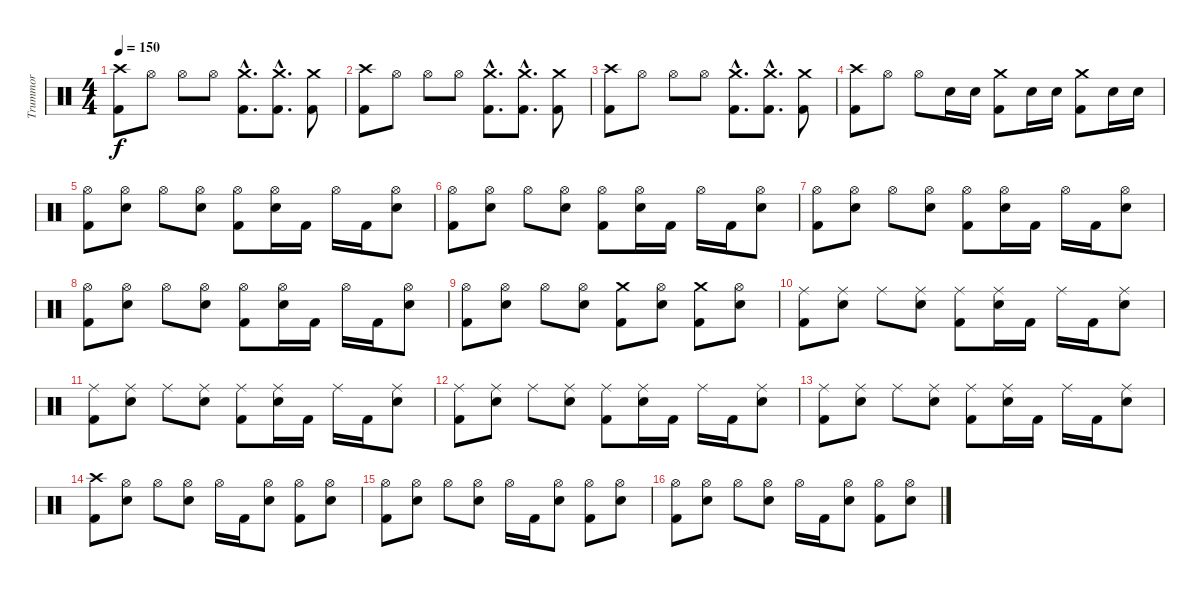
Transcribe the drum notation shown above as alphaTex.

\track ("Trummor" "Trummor") {instrument percussion}
\staff {score}
\articulation defaults
\ts (4 4)
\tempo 150
\clef neutral
\ks c
("Crash high (hit)" "Kick (hit) 2").8{dy f} "Hi-Hat (open)".8 "Hi-Hat (open)".8 "Hi-Hat (open)".8 ("Crash medium (hit)"{hac} "Kick (hit) 2"{hac}).8{d} ("Crash medium (hit)"{hac} "Kick (hit) 2"{hac}).8{d} ("Crash medium (hit)" "Kick (hit) 2").8 |
("Crash high (hit)" "Kick (hit) 2").8 "Hi-Hat (open)".8 "Hi-Hat (open)".8 "Hi-Hat (open)".8 ("Crash medium (hit)"{hac} "Kick (hit) 2"{hac}).8{d} ("Crash medium (hit)"{hac} "Kick (hit) 2"{hac}).8{d} ("Crash medium (hit)" "Kick (hit) 2").8 |
("Crash high (hit)" "Kick (hit) 2").8 "Hi-Hat (open)".8 "Hi-Hat (open)".8 "Hi-Hat (open)".8 ("Crash medium (hit)"{hac} "Kick (hit) 2"{hac}).8{d} ("Crash medium (hit)"{hac} "Kick (hit) 2"{hac}).8{d} ("Crash medium (hit)" "Kick (hit) 2").8 |
("Crash high (hit)" "Kick (hit) 2").8 "Hi-Hat (open)".8 "Hi-Hat (open)".8 "Snare (hit) 2".16 "Snare (hit) 2".16 ("Crash medium (hit)" "Kick (hit) 2").8 "Snare (hit) 2".16 "Snare (hit) 2".16 ("Crash medium (hit)" "Kick (hit) 2").8 "Snare (hit) 2".16 "Snare (hit) 2".16 |
("Hi-Hat (open)" "Kick (hit) 2").8 ("Hi-Hat (open)" "Snare (hit) 2").8 "Hi-Hat (open)".8 ("Hi-Hat (open)" "Snare (hit) 2").8 ("Hi-Hat (open)" "Kick (hit) 2").8 ("Hi-Hat (open)" "Snare (hit) 2").16 "Kick (hit) 2".16 "Hi-Hat (open)".16 "Kick (hit) 2".16 ("Hi-Hat (open)" "Snare (hit) 2").8 |
("Hi-Hat (open)" "Kick (hit) 2").8 ("Hi-Hat (open)" "Snare (hit) 2").8 "Hi-Hat (open)".8 ("Hi-Hat (open)" "Snare (hit) 2").8 ("Hi-Hat (open)" "Kick (hit) 2").8 ("Hi-Hat (open)" "Snare (hit) 2").16 "Kick (hit) 2".16 "Hi-Hat (open)".16 "Kick (hit) 2".16 ("Hi-Hat (open)" "Snare (hit) 2").8 |
("Hi-Hat (open)" "Kick (hit) 2").8 ("Hi-Hat (open)" "Snare (hit) 2").8 "Hi-Hat (open)".8 ("Hi-Hat (open)" "Snare (hit) 2").8 ("Hi-Hat (open)" "Kick (hit) 2").8 ("Hi-Hat (open)" "Snare (hit) 2").16 "Kick (hit) 2".16 "Hi-Hat (open)".16 "Kick (hit) 2".16 ("Hi-Hat (open)" "Snare (hit) 2").8 |
("Hi-Hat (open)" "Kick (hit) 2").8 ("Hi-Hat (open)" "Snare (hit) 2").8 "Hi-Hat (open)".8 ("Hi-Hat (open)" "Snare (hit) 2").8 ("Hi-Hat (open)" "Kick (hit) 2").8 ("Hi-Hat (open)" "Snare (hit) 2").16 "Kick (hit) 2".16 "Hi-Hat (open)".16 "Kick (hit) 2".16 ("Hi-Hat (open)" "Snare (hit) 2").8 |
("Hi-Hat (open)" "Kick (hit) 2").8 ("Hi-Hat (open)" "Snare (hit) 2").8 "Hi-Hat (open)".8 ("Hi-Hat (open)" "Snare (hit) 2").8 ("Crash medium (hit)" "Kick (hit) 2").8 ("Hi-Hat (open)" "Snare (hit) 2").8 ("Crash medium (hit)" "Kick (hit) 2").8 ("Hi-Hat (open)" "Snare (hit) 2").8 |
("Ride (middle)" "Kick (hit) 2").8 ("Ride (middle)" "Snare (hit) 2").8 "Ride (middle)".8 ("Ride (middle)" "Snare (hit) 2").8 ("Ride (middle)" "Kick (hit) 2").8 ("Ride (middle)" "Snare (hit) 2").16 "Kick (hit) 2".16 "Ride (middle)".16 "Kick (hit) 2".16 ("Ride (middle)" "Snare (hit) 2").8 |
("Ride (middle)" "Kick (hit) 2").8 ("Ride (middle)" "Snare (hit) 2").8 "Ride (middle)".8 ("Ride (middle)" "Snare (hit) 2").8 ("Ride (middle)" "Kick (hit) 2").8 ("Ride (middle)" "Snare (hit) 2").16 "Kick (hit) 2".16 "Ride (middle)".16 "Kick (hit) 2".16 ("Ride (middle)" "Snare (hit) 2").8 |
("Ride (middle)" "Kick (hit) 2").8 ("Ride (middle)" "Snare (hit) 2").8 "Ride (middle)".8 ("Ride (middle)" "Snare (hit) 2").8 ("Ride (middle)" "Kick (hit) 2").8 ("Ride (middle)" "Snare (hit) 2").16 "Kick (hit) 2".16 "Ride (middle)".16 "Kick (hit) 2".16 ("Ride (middle)" "Snare (hit) 2").8 |
("Ride (middle)" "Kick (hit) 2").8 ("Ride (middle)" "Snare (hit) 2").8 "Ride (middle)".8 ("Ride (middle)" "Snare (hit) 2").8 ("Ride (middle)" "Kick (hit) 2").8 ("Ride (middle)" "Snare (hit) 2").16 "Kick (hit) 2".16 "Ride (middle)".16 "Kick (hit) 2".16 ("Ride (middle)" "Snare (hit) 2").8 |
("Crash high (hit)" "Kick (hit) 2").8 ("Hi-Hat (open)" "Snare (hit) 2").8 "Hi-Hat (open)".8 ("Hi-Hat (open)" "Snare (hit) 2").8 "Hi-Hat (open)".16 "Kick (hit) 2".16 ("Hi-Hat (open)" "Snare (hit) 2").8 ("Hi-Hat (open)" "Kick (hit) 2").8 ("Hi-Hat (open)" "Snare (hit) 2").8 |
("Hi-Hat (open)" "Kick (hit) 2").8 ("Hi-Hat (open)" "Snare (hit) 2").8 "Hi-Hat (open)".8 ("Hi-Hat (open)" "Snare (hit) 2").8 "Hi-Hat (open)".16 "Kick (hit) 2".16 ("Hi-Hat (open)" "Snare (hit) 2").8 ("Hi-Hat (open)" "Kick (hit) 2").8 ("Hi-Hat (open)" "Snare (hit) 2").8 |
("Hi-Hat (open)" "Kick (hit) 2").8 ("Hi-Hat (open)" "Snare (hit) 2").8 "Hi-Hat (open)".8 ("Hi-Hat (open)" "Snare (hit) 2").8 "Hi-Hat (open)".16 "Kick (hit) 2".16 ("Hi-Hat (open)" "Snare (hit) 2").8 ("Hi-Hat (open)" "Kick (hit) 2").8 ("Hi-Hat (open)" "Snare (hit) 2").8
